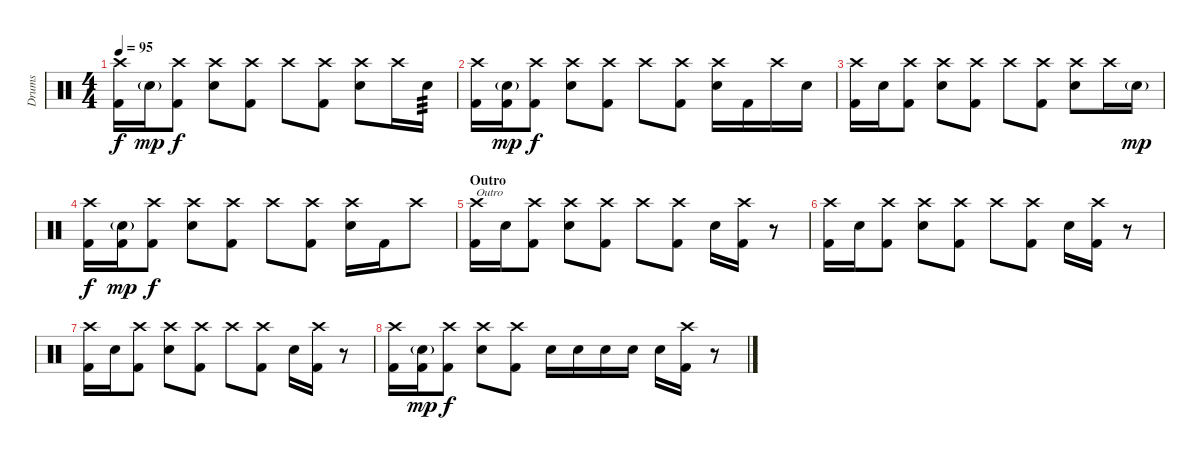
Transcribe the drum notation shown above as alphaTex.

\track ("Drums" "Drums") {instrument percussion}
\staff {score}
\articulation defaults
\ts (4 4)
\tempo 95
\clef neutral
\ks c
("Crash high (hit)" "Kick (hit) 2").16{dy f} "Electric Snare (hit)"{g}.16{dy mp} ("Crash high (hit)" "Kick (hit) 2").8{dy f} ("Crash high (hit)" "Electric Snare (hit)").8 ("Crash high (hit)" "Kick (hit) 2").8 "Crash high (hit)".8 ("Crash high (hit)" "Kick (hit) 2").8 ("Crash high (hit)" "Electric Snare (hit)").8 "Crash high (hit)".16 "Electric Snare (hit)".16{tp 3} |
("Crash high (hit)" "Kick (hit) 2").16 ("Electric Snare (hit)"{g} "Kick (hit) 2").16{dy mp} ("Crash high (hit)" "Kick (hit) 2").8{dy f} ("Crash high (hit)" "Electric Snare (hit)").8 ("Crash high (hit)" "Kick (hit) 2").8 "Crash high (hit)".8 ("Crash high (hit)" "Kick (hit) 2").8 ("Crash high (hit)" "Electric Snare (hit)").16 "Kick (hit) 2".16 "Crash high (hit)".16 "Electric Snare (hit)".16 |
("Crash high (hit)" "Kick (hit) 2").16 "Electric Snare (hit)".16 ("Crash high (hit)" "Kick (hit) 2").8 ("Crash high (hit)" "Electric Snare (hit)").8 ("Crash high (hit)" "Kick (hit) 2").8 "Crash high (hit)".8 ("Crash high (hit)" "Kick (hit) 2").8 ("Crash high (hit)" "Electric Snare (hit)").8 "Crash high (hit)".16 "Electric Snare (hit)"{g}.16{dy mp} |
("Crash high (hit)" "Kick (hit) 2").16{dy f} ("Electric Snare (hit)"{g} "Kick (hit) 2").16{dy mp} ("Crash high (hit)" "Kick (hit) 2").8{dy f} ("Crash high (hit)" "Electric Snare (hit)").8 ("Crash high (hit)" "Kick (hit) 2").8 "Crash high (hit)".8 ("Crash high (hit)" "Kick (hit) 2").8 ("Crash high (hit)" "Electric Snare (hit)").16 "Kick (hit) 2".16 "Crash high (hit)".8 |
\section ("" "Outro")
("Crash high (hit)" "Kick (hit) 2").16{txt "Outro"} "Electric Snare (hit)".16 ("Crash high (hit)" "Kick (hit) 2").8 ("Crash high (hit)" "Electric Snare (hit)").8 ("Crash high (hit)" "Kick (hit) 2").8 "Crash high (hit)".8 ("Crash high (hit)" "Kick (hit) 2").8 "Electric Snare (hit)".16 ("Crash high (hit)" "Kick (hit) 2").16 r.8 |
("Crash high (hit)" "Kick (hit) 2").16 "Electric Snare (hit)".16 ("Crash high (hit)" "Kick (hit) 2").8 ("Crash high (hit)" "Electric Snare (hit)").8 ("Crash high (hit)" "Kick (hit) 2").8 "Crash high (hit)".8 ("Crash high (hit)" "Kick (hit) 2").8 "Electric Snare (hit)".16 ("Crash high (hit)" "Kick (hit) 2").16 r.8 |
("Crash high (hit)" "Kick (hit) 2").16 "Electric Snare (hit)".16 ("Crash high (hit)" "Kick (hit) 2").8 ("Crash high (hit)" "Electric Snare (hit)").8 ("Crash high (hit)" "Kick (hit) 2").8 "Crash high (hit)".8 ("Crash high (hit)" "Kick (hit) 2").8 "Electric Snare (hit)".16 ("Crash high (hit)" "Kick (hit) 2").16 r.8 |
("Crash high (hit)" "Kick (hit) 2").16 ("Electric Snare (hit)"{g} "Kick (hit) 2").16{dy mp} ("Crash high (hit)" "Kick (hit) 2").8{dy f} ("Crash high (hit)" "Electric Snare (hit)").8 ("Crash high (hit)" "Kick (hit) 2").8 "Electric Snare (hit)".16 "Electric Snare (hit)".16 "Electric Snare (hit)".16 "Electric Snare (hit)".16 "Electric Snare (hit)".16 ("Crash high (hit)" "Kick (hit) 2").16 r.8
